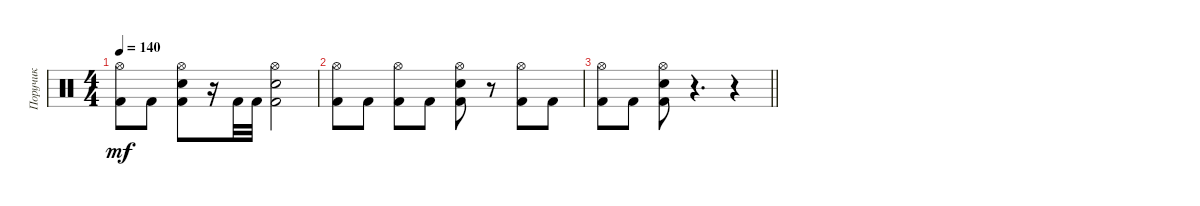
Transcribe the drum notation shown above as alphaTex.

\track ("Поручик" "Поручик") {instrument percussion}
\staff {score}
\articulation defaults
\ts (4 4)
\tempo 140
\clef neutral
\ks c
("Hi-Hat (open)" "Kick (hit) 2").8{dy mf} "Kick (hit) 2".8 ("Hi-Hat (open)" "Electric Snare (hit)" "Kick (hit) 2").8 r.16 "Kick (hit) 2".32 "Kick (hit) 2".32 ("Hi-Hat (open)" "Electric Snare (hit)" "Kick (hit) 2").2 |
("Hi-Hat (open)" "Kick (hit) 2").8 "Kick (hit) 2".8 ("Hi-Hat (open)" "Kick (hit) 2").8 "Kick (hit) 2".8 ("Hi-Hat (open)" "Electric Snare (hit)" "Kick (hit) 2").8 r.8 ("Hi-Hat (open)" "Kick (hit) 2").8 "Kick (hit) 2".8 |
\barLineRight lightlight
("Hi-Hat (open)" "Kick (hit) 2").8 "Kick (hit) 2".8 ("Hi-Hat (open)" "Electric Snare (hit)" "Kick (hit) 2").8 r.4{d} r.4
